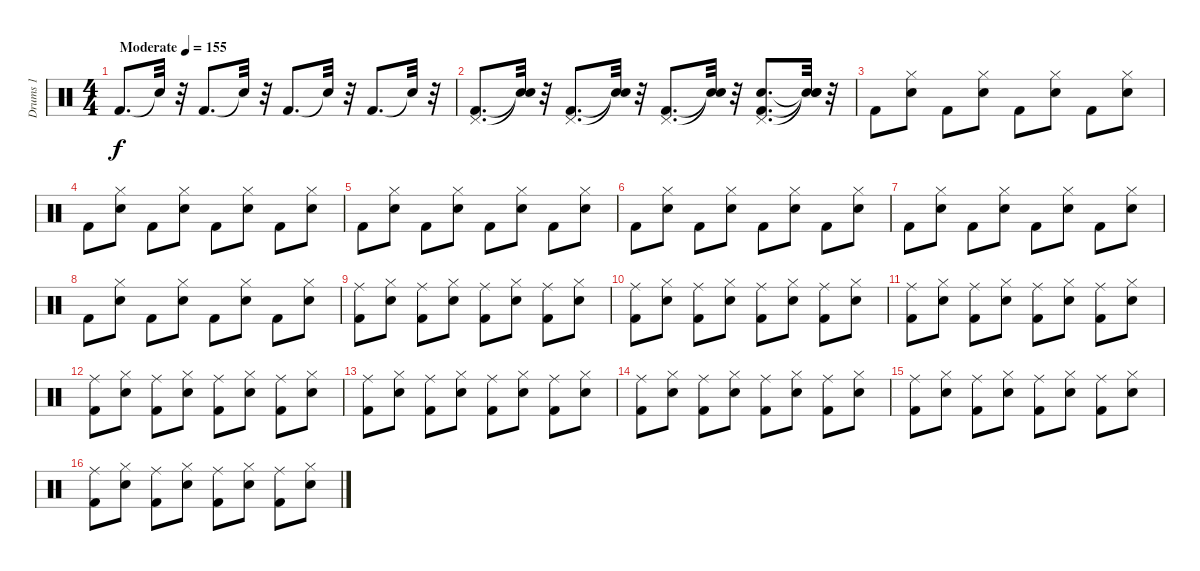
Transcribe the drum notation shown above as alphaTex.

\track ("Drums 1" "Drums 1") {instrument percussion}
\staff {score}
\articulation defaults
\ts (4 4)
\tempo (155 "Moderate")
\clef neutral
\ks c "Kick (hit) 2".8{d dy f} "Snare (hit)"{t}.32
r.32 "Kick (hit) 2".8{d} "Snare (hit)"{t}.32 r.32 "Kick (hit) 2".8{d} "Snare (hit)"{t}.32 r.32 "Kick (hit) 2".8{d} "Snare (hit)"{t}.32 r.32 |
("Kick (hit) 2" "Pedal Hi-Hat (hit)").8{d} ("Snare (hit)"{t} "Snare (hit)"{t}).32 r.32 ("Kick (hit) 2" "Pedal Hi-Hat (hit)").8{d} ("Snare (hit)"{t} "Snare (hit)"{t}).32 r.32 ("Kick (hit) 2" "Pedal Hi-Hat (hit)").8{d} ("Snare (hit)"{t} "Snare (hit)"{t}).32 r.32 ("Kick (hit) 2" "Snare (hit) 2" "Pedal Hi-Hat (hit)").8{d} ("Snare (hit)"{t} "Snare (hit)"{t} "Snare (hit)"{t}).32 r.32 |
"Kick (hit) 2".8 ("Snare (hit) 2" "Hi-Hat (closed)").8 "Kick (hit) 2".8 ("Snare (hit) 2" "Hi-Hat (closed)").8 "Kick (hit) 2".8 ("Snare (hit) 2" "Hi-Hat (closed)").8 "Kick (hit) 2".8 ("Snare (hit) 2" "Hi-Hat (closed)").8 |
"Kick (hit) 2".8 ("Snare (hit) 2" "Hi-Hat (closed)").8 "Kick (hit) 2".8 ("Snare (hit) 2" "Hi-Hat (closed)").8 "Kick (hit) 2".8 ("Snare (hit) 2" "Hi-Hat (closed)").8 "Kick (hit) 2".8 ("Snare (hit) 2" "Hi-Hat (closed)").8 |
"Kick (hit) 2".8 ("Snare (hit) 2" "Hi-Hat (closed)").8 "Kick (hit) 2".8 ("Snare (hit) 2" "Hi-Hat (closed)").8 "Kick (hit) 2".8 ("Snare (hit) 2" "Hi-Hat (closed)").8 "Kick (hit) 2".8 ("Snare (hit) 2" "Hi-Hat (closed)").8 |
"Kick (hit) 2".8 ("Snare (hit) 2" "Hi-Hat (closed)").8 "Kick (hit) 2".8 ("Snare (hit) 2" "Hi-Hat (closed)").8 "Kick (hit) 2".8 ("Snare (hit) 2" "Hi-Hat (closed)").8 "Kick (hit) 2".8 ("Snare (hit) 2" "Hi-Hat (closed)").8 |
"Kick (hit) 2".8 ("Snare (hit) 2" "Hi-Hat (closed)").8 "Kick (hit) 2".8 ("Snare (hit) 2" "Hi-Hat (closed)").8 "Kick (hit) 2".8 ("Snare (hit) 2" "Hi-Hat (closed)").8 "Kick (hit) 2".8 ("Snare (hit) 2" "Hi-Hat (closed)").8 |
"Kick (hit) 2".8 ("Snare (hit) 2" "Hi-Hat (closed)").8 "Kick (hit) 2".8 ("Snare (hit) 2" "Hi-Hat (closed)").8 "Kick (hit) 2".8 ("Snare (hit) 2" "Hi-Hat (closed)").8 "Kick (hit) 2".8 ("Snare (hit) 2" "Hi-Hat (closed)").8 |
("Kick (hit) 2" "Ride (middle)").8 ("Snare (hit) 2" "Hi-Hat (closed)").8 ("Kick (hit) 2" "Ride (middle)").8 ("Snare (hit) 2" "Hi-Hat (closed)").8 ("Kick (hit) 2" "Ride (middle)").8 ("Snare (hit) 2" "Hi-Hat (closed)").8 ("Kick (hit) 2" "Ride (middle)").8 ("Snare (hit) 2" "Hi-Hat (closed)").8 |
("Kick (hit) 2" "Ride (middle)").8 ("Snare (hit) 2" "Hi-Hat (closed)").8 ("Kick (hit) 2" "Ride (middle)").8 ("Snare (hit) 2" "Hi-Hat (closed)").8 ("Kick (hit) 2" "Ride (middle)").8 ("Snare (hit) 2" "Hi-Hat (closed)").8 ("Kick (hit) 2" "Ride (middle)").8 ("Snare (hit) 2" "Hi-Hat (closed)").8 |
("Kick (hit) 2" "Ride (middle)").8 ("Snare (hit) 2" "Hi-Hat (closed)").8 ("Kick (hit) 2" "Ride (middle)").8 ("Snare (hit) 2" "Hi-Hat (closed)").8 ("Kick (hit) 2" "Ride (middle)").8 ("Snare (hit) 2" "Hi-Hat (closed)").8 ("Kick (hit) 2" "Ride (middle)").8 ("Snare (hit) 2" "Hi-Hat (closed)").8 |
("Kick (hit) 2" "Ride (middle)").8 ("Snare (hit) 2" "Hi-Hat (closed)").8 ("Kick (hit) 2" "Ride (middle)").8 ("Snare (hit) 2" "Hi-Hat (closed)").8 ("Kick (hit) 2" "Ride (middle)").8 ("Snare (hit) 2" "Hi-Hat (closed)").8 ("Kick (hit) 2" "Ride (middle)").8 ("Snare (hit) 2" "Hi-Hat (closed)").8 |
("Kick (hit) 2" "Ride (middle)").8 ("Snare (hit) 2" "Hi-Hat (closed)").8 ("Kick (hit) 2" "Ride (middle)").8 ("Snare (hit) 2" "Hi-Hat (closed)").8 ("Kick (hit) 2" "Ride (middle)").8 ("Snare (hit) 2" "Hi-Hat (closed)").8 ("Kick (hit) 2" "Ride (middle)").8 ("Snare (hit) 2" "Hi-Hat (closed)").8 |
("Kick (hit) 2" "Ride (middle)").8 ("Snare (hit) 2" "Hi-Hat (closed)").8 ("Kick (hit) 2" "Ride (middle)").8 ("Snare (hit) 2" "Hi-Hat (closed)").8 ("Kick (hit) 2" "Ride (middle)").8 ("Snare (hit) 2" "Hi-Hat (closed)").8 ("Kick (hit) 2" "Ride (middle)").8 ("Snare (hit) 2" "Hi-Hat (closed)").8 |
("Kick (hit) 2" "Ride (middle)").8 ("Snare (hit) 2" "Hi-Hat (closed)").8 ("Kick (hit) 2" "Ride (middle)").8 ("Snare (hit) 2" "Hi-Hat (closed)").8 ("Kick (hit) 2" "Ride (middle)").8 ("Snare (hit) 2" "Hi-Hat (closed)").8 ("Kick (hit) 2" "Ride (middle)").8 ("Snare (hit) 2" "Hi-Hat (closed)").8 |
("Kick (hit) 2" "Ride (middle)").8 ("Snare (hit) 2" "Hi-Hat (closed)").8 ("Kick (hit) 2" "Ride (middle)").8 ("Snare (hit) 2" "Hi-Hat (closed)").8 ("Kick (hit) 2" "Ride (middle)").8 ("Snare (hit) 2" "Hi-Hat (closed)").8 ("Kick (hit) 2" "Ride (middle)").8 ("Snare (hit) 2" "Hi-Hat (closed)").8
